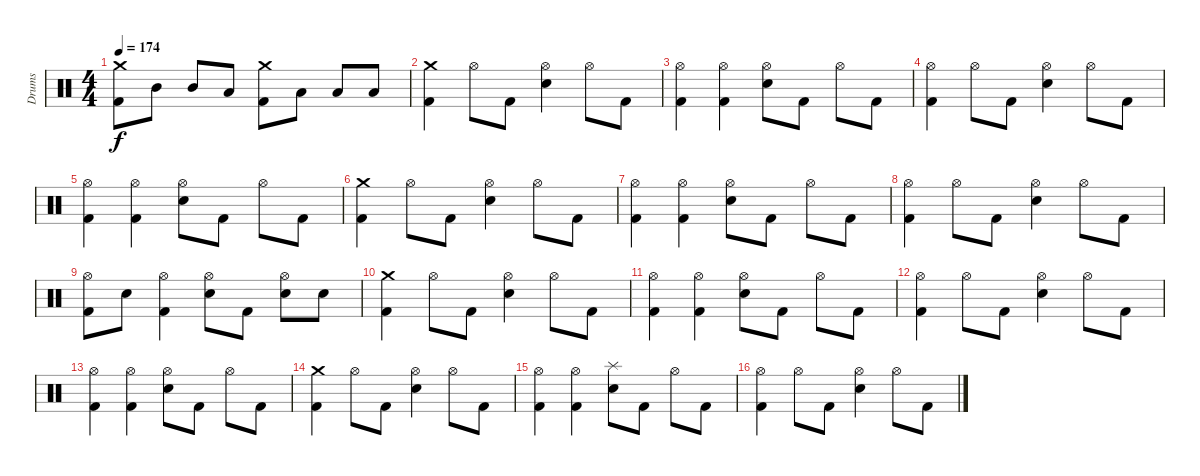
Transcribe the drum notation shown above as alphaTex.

\track ("Drums" "Drums") {instrument percussion}
\staff {score}
\articulation defaults
\ts (4 4)
\tempo 174
\clef neutral
\ks c
("Crash medium (hit)" "Kick (hit) 2").8{dy f} "Mid Tom (hit)".8 "Mid Tom (hit)".8 "Low Tom (hit)".8 ("Crash medium (hit)" "Kick (hit) 2").8 "Low Tom (hit)".8 "Low Tom (hit)".8 "Low Floor Tom (hit)".8 |
("Crash medium (hit)" "Kick (hit) 2").4 "Hi-Hat (open)".8 "Kick (hit) 2".8 ("Hi-Hat (open)" "Snare (hit) 2").4 "Hi-Hat (open)".8 "Kick (hit) 2".8 |
("Hi-Hat (open)" "Kick (hit) 2").4 ("Hi-Hat (open)" "Kick (hit) 2").4 ("Hi-Hat (open)" "Snare (hit) 2").8 "Kick (hit) 2".8 "Hi-Hat (open)".8 "Kick (hit) 2".8 |
("Hi-Hat (open)" "Kick (hit) 2").4 "Hi-Hat (open)".8 "Kick (hit) 2".8 ("Hi-Hat (open)" "Snare (hit) 2").4 "Hi-Hat (open)".8 "Kick (hit) 2".8 |
("Hi-Hat (open)" "Kick (hit) 2").4 ("Hi-Hat (open)" "Kick (hit) 2").4 ("Hi-Hat (open)" "Snare (hit) 2").8 "Kick (hit) 2".8 "Hi-Hat (open)".8 "Kick (hit) 2".8 |
("Crash medium (hit)" "Kick (hit) 2").4 "Hi-Hat (open)".8 "Kick (hit) 2".8 ("Hi-Hat (open)" "Snare (hit) 2").4 "Hi-Hat (open)".8 "Kick (hit) 2".8 |
("Hi-Hat (open)" "Kick (hit) 2").4 ("Hi-Hat (open)" "Kick (hit) 2").4 ("Hi-Hat (open)" "Snare (hit) 2").8 "Kick (hit) 2".8 "Hi-Hat (open)".8 "Kick (hit) 2".8 |
("Hi-Hat (open)" "Kick (hit) 2").4 "Hi-Hat (open)".8 "Kick (hit) 2".8 ("Hi-Hat (open)" "Snare (hit) 2").4 "Hi-Hat (open)".8 "Kick (hit) 2".8 |
("Hi-Hat (open)" "Kick (hit) 2").8 "Snare (hit) 2".8 ("Hi-Hat (open)" "Kick (hit) 2").4 ("Hi-Hat (open)" "Snare (hit) 2").8 "Kick (hit) 2".8 ("Hi-Hat (open)" "Snare (hit) 2").8 "Snare (hit) 2".8 |
("Crash medium (hit)" "Kick (hit) 2").4 "Hi-Hat (open)".8 "Kick (hit) 2".8 ("Hi-Hat (open)" "Snare (hit) 2").4 "Hi-Hat (open)".8 "Kick (hit) 2".8 |
("Hi-Hat (open)" "Kick (hit) 2").4 ("Hi-Hat (open)" "Kick (hit) 2").4 ("Hi-Hat (open)" "Snare (hit) 2").8 "Kick (hit) 2".8 "Hi-Hat (open)".8 "Kick (hit) 2".8 |
("Hi-Hat (open)" "Kick (hit) 2").4 "Hi-Hat (open)".8 "Kick (hit) 2".8 ("Hi-Hat (open)" "Snare (hit) 2").4 "Hi-Hat (open)".8 "Kick (hit) 2".8 |
("Hi-Hat (open)" "Kick (hit) 2").4 ("Hi-Hat (open)" "Kick (hit) 2").4 ("Hi-Hat (open)" "Snare (hit) 2").8 "Kick (hit) 2".8 "Hi-Hat (open)".8 "Kick (hit) 2".8 |
("Crash medium (hit)" "Kick (hit) 2").4 "Hi-Hat (open)".8 "Kick (hit) 2".8 ("Hi-Hat (open)" "Snare (hit) 2").4 "Hi-Hat (open)".8 "Kick (hit) 2".8 |
("Hi-Hat (open)" "Kick (hit) 2").4 ("Hi-Hat (open)" "Kick (hit) 2").4 ("Splash (hit)" "Snare (hit) 2").8 "Kick (hit) 2".8 "Hi-Hat (open)".8 "Kick (hit) 2".8 |
("Hi-Hat (open)" "Kick (hit) 2").4 "Hi-Hat (open)".8 "Kick (hit) 2".8 ("Hi-Hat (open)" "Snare (hit) 2").4 "Hi-Hat (open)".8 "Kick (hit) 2".8
